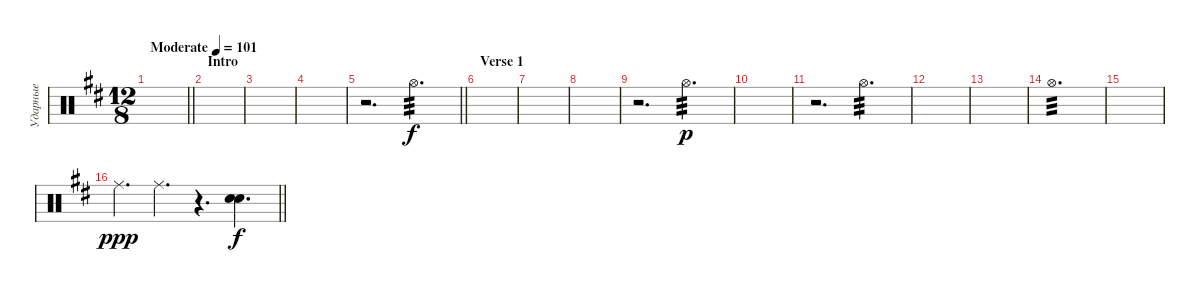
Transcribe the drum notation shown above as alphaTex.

\track ("Ударные" "Ударные") {instrument percussion}
\staff {score}
\articulation defaults
\ts (12 8)
\tempo (101 "Moderate")
\clef neutral
\barLineRight lightlight
\ks bminor
|
\section ("" "Intro")
|
|
|
\barLineRight lightlight
r.2{d volume 0} "Hi-Hat (open)".2{d tp 3 volume 14} |
\section ("" "Verse 1")
|
|
|
r.2{d volume 0} "Hi-Hat (open)".2{d tp 3 dy p volume 14} |
|
r.2{d volume 0} "Hi-Hat (open)".2{d tp 3 volume 14} |
|
|
"Hi-Hat (open)".1{d tp 3 volume 14} |
|
\barLineRight lightlight "Ride (middle)".4{d dy ppp} "Ride (middle)".4{d}
r.4{d} ("Snare (hit) 2" "Snare (hit) 2").4{d bd 240 dy f}
